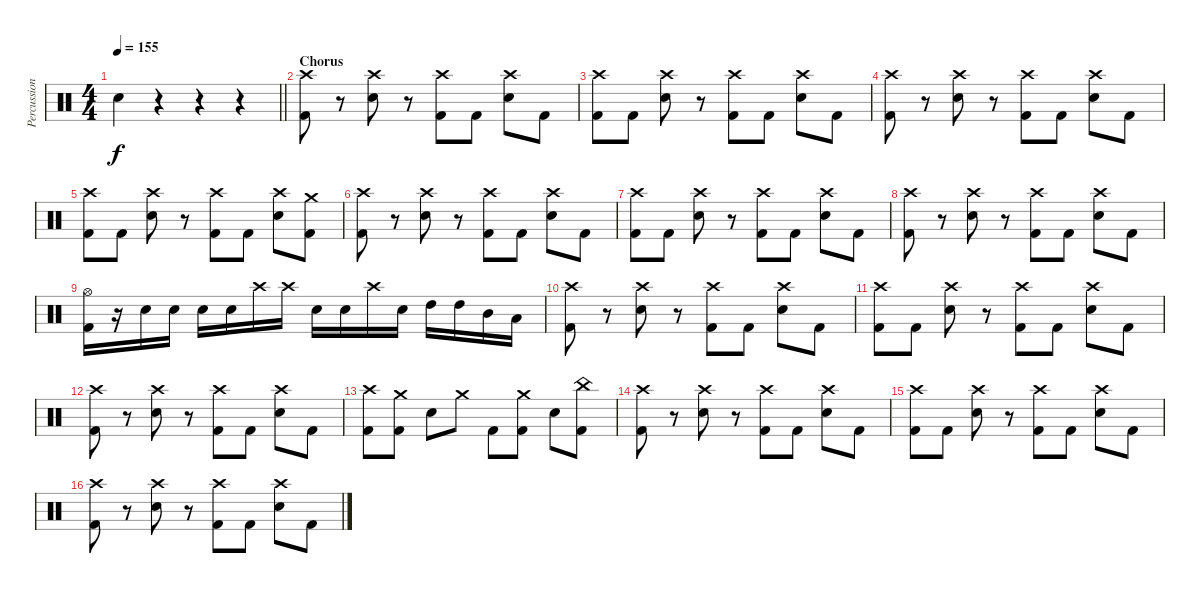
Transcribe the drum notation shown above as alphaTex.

\track ("Percussion" "Percussion") {instrument percussion}
\staff {score}
\articulation defaults
\ts (4 4)
\tempo 155
\clef neutral
\barLineRight lightlight
\ks c "Snare (hit) 2".4{dy f}
r.4 r.4 r.4 |
\section ("" "Chorus")
("Crash high (hit)" "Kick (hit) 2").8 r.8 ("Crash high (hit)" "Snare (hit) 2").8 r.8 ("Crash high (hit)" "Kick (hit) 2").8 "Kick (hit) 2".8 ("Crash high (hit)" "Snare (hit) 2").8 "Kick (hit) 2".8 |
("Crash high (hit)" "Kick (hit) 2").8 "Kick (hit) 2".8 ("Crash high (hit)" "Snare (hit) 2").8 r.8 ("Crash high (hit)" "Kick (hit) 2").8 "Kick (hit) 2".8 ("Crash high (hit)" "Snare (hit) 2").8 "Kick (hit) 2".8 |
("Crash high (hit)" "Kick (hit) 2").8 r.8 ("Crash high (hit)" "Snare (hit) 2").8 r.8 ("Crash high (hit)" "Kick (hit) 2").8 "Kick (hit) 2".8 ("Crash high (hit)" "Snare (hit) 2").8 "Kick (hit) 2".8 |
("Crash high (hit)" "Kick (hit) 2").8 "Kick (hit) 2".8 ("Crash high (hit)" "Snare (hit) 2").8 r.8 ("Crash high (hit)" "Kick (hit) 2").8 "Kick (hit) 2".8 ("Crash high (hit)" "Snare (hit) 2").8 ("Crash medium (hit)" "Kick (hit) 2").8 |
("Crash high (hit)" "Kick (hit) 2").8 r.8 ("Crash high (hit)" "Snare (hit) 2").8 r.8 ("Crash high (hit)" "Kick (hit) 2").8 "Kick (hit) 2".8 ("Crash high (hit)" "Snare (hit) 2").8 "Kick (hit) 2".8 |
("Crash high (hit)" "Kick (hit) 2").8 "Kick (hit) 2".8 ("Crash high (hit)" "Snare (hit) 2").8 r.8 ("Crash high (hit)" "Kick (hit) 2").8 "Kick (hit) 2".8 ("Crash high (hit)" "Snare (hit) 2").8 "Kick (hit) 2".8 |
("Crash high (hit)" "Kick (hit) 2").8 r.8 ("Crash high (hit)" "Snare (hit) 2").8 r.8 ("Crash high (hit)" "Kick (hit) 2").8 "Kick (hit) 2".8 ("Crash high (hit)" "Snare (hit) 2").8 "Kick (hit) 2".8 |
("Hi-Hat (open)" "Kick (hit) 2").16 r.16 "Snare (hit) 2".16 "Snare (hit) 2".16 "Snare (hit) 2".16 "Snare (hit) 2".16 "Crash high (hit)".16 "Crash high (hit)".16 "Snare (hit) 2".16 "Snare (hit) 2".16 "Crash high (hit)".16 "Snare (hit) 2".16 "High Tom (hit)".16 "High Tom (hit)".16 "Mid Tom (hit)".16 "Low Tom (hit)".16 |
("Crash high (hit)" "Kick (hit) 2").8 r.8 ("Crash high (hit)" "Snare (hit) 2").8 r.8 ("Crash high (hit)" "Kick (hit) 2").8 "Kick (hit) 2".8 ("Crash high (hit)" "Snare (hit) 2").8 "Kick (hit) 2".8 |
("Crash high (hit)" "Kick (hit) 2").8 "Kick (hit) 2".8 ("Crash high (hit)" "Snare (hit) 2").8 r.8 ("Crash high (hit)" "Kick (hit) 2").8 "Kick (hit) 2".8 ("Crash high (hit)" "Snare (hit) 2").8 "Kick (hit) 2".8 |
("Crash high (hit)" "Kick (hit) 2").8 r.8 ("Crash high (hit)" "Snare (hit) 2").8 r.8 ("Crash high (hit)" "Kick (hit) 2").8 "Kick (hit) 2".8 ("Crash high (hit)" "Snare (hit) 2").8 "Kick (hit) 2".8 |
("Crash high (hit)" "Kick (hit) 2").8 ("Crash medium (hit)" "Kick (hit) 2").8 "Snare (hit) 2".8 "Crash medium (hit)".8 "Kick (hit) 2".8 ("Crash medium (hit)" "Kick (hit) 2").8 "Snare (hit) 2".8 ("China (hit)" "Kick (hit) 2").8 |
("Crash high (hit)" "Kick (hit) 2").8 r.8 ("Crash high (hit)" "Snare (hit) 2").8 r.8 ("Crash high (hit)" "Kick (hit) 2").8 "Kick (hit) 2".8 ("Crash high (hit)" "Snare (hit) 2").8 "Kick (hit) 2".8 |
("Crash high (hit)" "Kick (hit) 2").8 "Kick (hit) 2".8 ("Crash high (hit)" "Snare (hit) 2").8 r.8 ("Crash high (hit)" "Kick (hit) 2").8 "Kick (hit) 2".8 ("Crash high (hit)" "Snare (hit) 2").8 "Kick (hit) 2".8 |
("Crash high (hit)" "Kick (hit) 2").8 r.8 ("Crash high (hit)" "Snare (hit) 2").8 r.8 ("Crash high (hit)" "Kick (hit) 2").8 "Kick (hit) 2".8 ("Crash high (hit)" "Snare (hit) 2").8 "Kick (hit) 2".8
